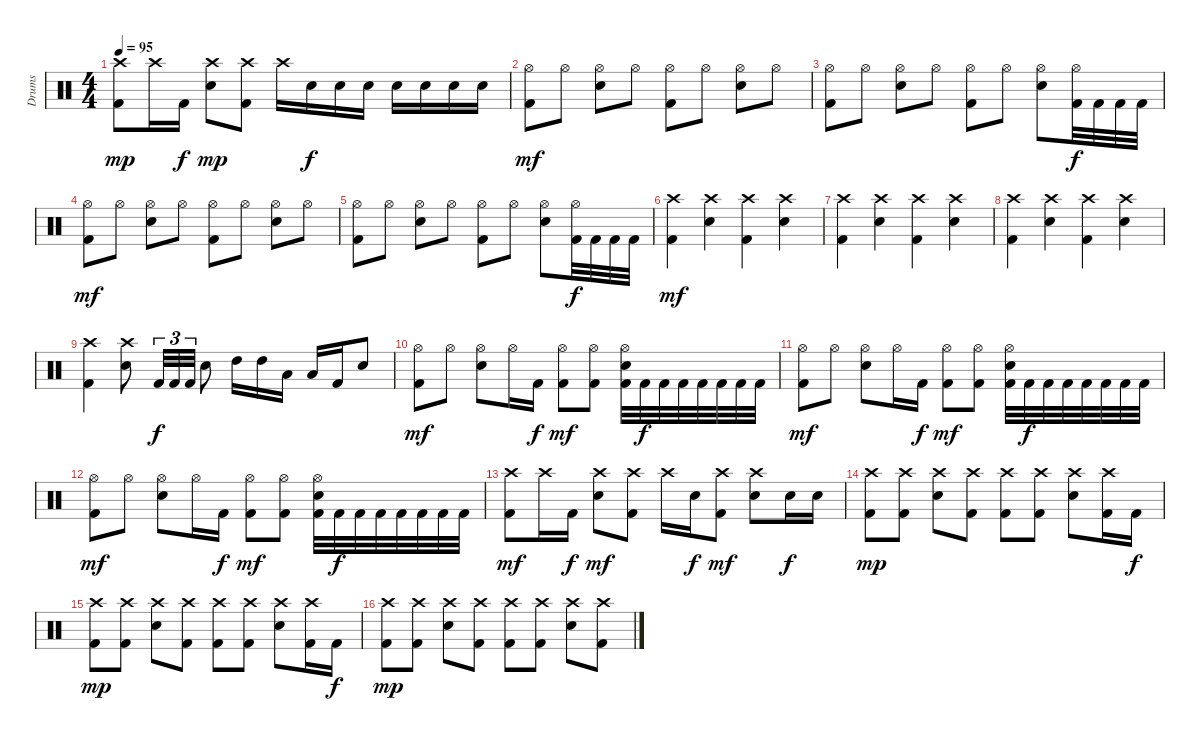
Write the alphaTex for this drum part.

\track ("Drums" "Drums") {instrument percussion}
\staff {score}
\articulation defaults
\ts (4 4)
\tempo 95
\clef neutral
\ks c
("Crash high (hit)" "Kick (hit) 2").8{dy mp} "Crash high (hit)".16 "Kick (hit) 2".16{dy f} ("Crash high (hit)" "Electric Snare (hit)").8{dy mp} ("Crash high (hit)" "Kick (hit) 2").8 "Crash high (hit)".16 "Electric Snare (hit)".16{dy f} "Electric Snare (hit)".16 "Electric Snare (hit)".16 "Electric Snare (hit)".16 "Electric Snare (hit)".16 "Electric Snare (hit)".16 "Electric Snare (hit)".16 |
("Hi-Hat (open)" "Kick (hit) 2").8{dy mf} "Hi-Hat (open)".8 ("Hi-Hat (open)" "Electric Snare (hit)").8 "Hi-Hat (open)".8 ("Hi-Hat (open)" "Kick (hit) 2").8 "Hi-Hat (open)".8 ("Hi-Hat (open)" "Electric Snare (hit)").8 "Hi-Hat (open)".8 |
("Hi-Hat (open)" "Kick (hit) 2").8 "Hi-Hat (open)".8 ("Hi-Hat (open)" "Electric Snare (hit)").8 "Hi-Hat (open)".8 ("Hi-Hat (open)" "Kick (hit) 2").8 "Hi-Hat (open)".8 ("Hi-Hat (open)" "Electric Snare (hit)").8 ("Hi-Hat (open)" "Kick (hit) 2").32{dy f} "Kick (hit) 2".32 "Kick (hit) 2".32 "Kick (hit) 2".32 |
("Hi-Hat (open)" "Kick (hit) 2").8{dy mf} "Hi-Hat (open)".8 ("Hi-Hat (open)" "Electric Snare (hit)").8 "Hi-Hat (open)".8 ("Hi-Hat (open)" "Kick (hit) 2").8 "Hi-Hat (open)".8 ("Hi-Hat (open)" "Electric Snare (hit)").8 "Hi-Hat (open)".8 |
("Hi-Hat (open)" "Kick (hit) 2").8 "Hi-Hat (open)".8 ("Hi-Hat (open)" "Electric Snare (hit)").8 "Hi-Hat (open)".8 ("Hi-Hat (open)" "Kick (hit) 2").8 "Hi-Hat (open)".8 ("Hi-Hat (open)" "Electric Snare (hit)").8 ("Hi-Hat (open)" "Kick (hit) 2").32{dy f} "Kick (hit) 2".32 "Kick (hit) 2".32 "Kick (hit) 2".32 |
("Crash high (hit)" "Kick (hit) 2").4{dy mf} ("Crash high (hit)" "Electric Snare (hit)").4 ("Crash high (hit)" "Kick (hit) 2").4 ("Crash high (hit)" "Electric Snare (hit)").4 |
("Crash high (hit)" "Kick (hit) 2").4 ("Crash high (hit)" "Electric Snare (hit)").4 ("Crash high (hit)" "Kick (hit) 2").4 ("Crash high (hit)" "Electric Snare (hit)").4 |
("Crash high (hit)" "Kick (hit) 2").4 ("Crash high (hit)" "Electric Snare (hit)").4 ("Crash high (hit)" "Kick (hit) 2").4 ("Crash high (hit)" "Electric Snare (hit)").4 |
("Crash high (hit)" "Kick (hit) 2").4 ("Crash high (hit)" "Electric Snare (hit)").8 "Kick (hit) 2".32{tu (3 2) dy f} "Kick (hit) 2".32{tu (3 2)} "Kick (hit) 2".32{tu (3 2)} "Electric Snare (hit)".8 "High Tom (hit)".16 "High Tom (hit)".16 "Low Tom (hit)".16 "Low Tom (hit)".16 "Kick (hit) 2".16 "Electric Snare (hit)".8 |
("Hi-Hat (open)" "Kick (hit) 2").8{dy mf} "Hi-Hat (open)".8 ("Hi-Hat (open)" "Electric Snare (hit)").8 "Hi-Hat (open)".16 "Kick (hit) 2".16{dy f} ("Hi-Hat (open)" "Kick (hit) 2").8{dy mf} ("Hi-Hat (open)" "Kick (hit) 2").8 ("Hi-Hat (open)" "Electric Snare (hit)" "Kick (hit) 2").32 "Kick (hit) 2".32{dy f} "Kick (hit) 2".32 "Kick (hit) 2".32 "Kick (hit) 2".32 "Kick (hit) 2".32 "Kick (hit) 2".32 "Kick (hit) 2".32 |
("Hi-Hat (open)" "Kick (hit) 2").8{dy mf} "Hi-Hat (open)".8 ("Hi-Hat (open)" "Electric Snare (hit)").8 "Hi-Hat (open)".16 "Kick (hit) 2".16{dy f} ("Hi-Hat (open)" "Kick (hit) 2").8{dy mf} ("Hi-Hat (open)" "Kick (hit) 2").8 ("Hi-Hat (open)" "Electric Snare (hit)" "Kick (hit) 2").32 "Kick (hit) 2".32{dy f} "Kick (hit) 2".32 "Kick (hit) 2".32 "Kick (hit) 2".32 "Kick (hit) 2".32 "Kick (hit) 2".32 "Kick (hit) 2".32 |
("Hi-Hat (open)" "Kick (hit) 2").8{dy mf} "Hi-Hat (open)".8 ("Hi-Hat (open)" "Electric Snare (hit)").8 "Hi-Hat (open)".16 "Kick (hit) 2".16{dy f} ("Hi-Hat (open)" "Kick (hit) 2").8{dy mf} ("Hi-Hat (open)" "Kick (hit) 2").8 ("Hi-Hat (open)" "Electric Snare (hit)" "Kick (hit) 2").32 "Kick (hit) 2".32{dy f} "Kick (hit) 2".32 "Kick (hit) 2".32 "Kick (hit) 2".32 "Kick (hit) 2".32 "Kick (hit) 2".32 "Kick (hit) 2".32 |
("Crash high (hit)" "Kick (hit) 2").8{dy mf} "Crash high (hit)".16 "Kick (hit) 2".16{dy f} ("Crash high (hit)" "Electric Snare (hit)").8{dy mf} ("Crash high (hit)" "Kick (hit) 2").8 "Crash high (hit)".16 "Electric Snare (hit)".16{dy f} ("Crash high (hit)" "Kick (hit) 2").8{dy mf} ("Crash high (hit)" "Electric Snare (hit)").8 "Electric Snare (hit)".16{dy f} "Electric Snare (hit)".16 |
("Crash high (hit)" "Kick (hit) 2").8{dy mp} ("Crash high (hit)" "Kick (hit) 2").8 ("Crash high (hit)" "Electric Snare (hit)").8 ("Crash high (hit)" "Kick (hit) 2").8 ("Crash high (hit)" "Kick (hit) 2").8 ("Crash high (hit)" "Kick (hit) 2").8 ("Crash high (hit)" "Electric Snare (hit)").8 ("Crash high (hit)" "Kick (hit) 2").16 "Kick (hit) 2".16{dy f} |
("Crash high (hit)" "Kick (hit) 2").8{dy mp} ("Crash high (hit)" "Kick (hit) 2").8 ("Crash high (hit)" "Electric Snare (hit)").8 ("Crash high (hit)" "Kick (hit) 2").8 ("Crash high (hit)" "Kick (hit) 2").8 ("Crash high (hit)" "Kick (hit) 2").8 ("Crash high (hit)" "Electric Snare (hit)").8 ("Crash high (hit)" "Kick (hit) 2").16 "Kick (hit) 2".16{dy f} |
("Crash high (hit)" "Kick (hit) 2").8{dy mp} ("Crash high (hit)" "Kick (hit) 2").8 ("Crash high (hit)" "Electric Snare (hit)").8 ("Crash high (hit)" "Kick (hit) 2").8 ("Crash high (hit)" "Kick (hit) 2").8 ("Crash high (hit)" "Kick (hit) 2").8 ("Crash high (hit)" "Electric Snare (hit)").8 ("Crash high (hit)" "Kick (hit) 2").8
